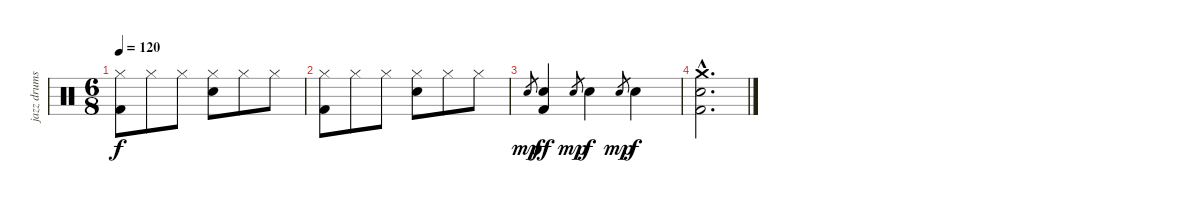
\track ("jazz drumset" "jazz drums") {instrument percussion}
\staff {score}
\articulation defaults
\ts (6 8)
\tempo 120
\clef neutral
\ks c
("Hi-Hat (closed)" "Kick (hit) 2").8{dy f} "Hi-Hat (closed)".8 "Hi-Hat (closed)".8 ("Hi-Hat (closed)" "Snare (hit) 2").8 "Hi-Hat (closed)".8 "Hi-Hat (closed)".8 |
("Hi-Hat (closed)" "Kick (hit) 2").8 "Hi-Hat (closed)".8 "Hi-Hat (closed)".8 ("Hi-Hat (closed)" "Snare (hit) 2").8 "Hi-Hat (closed)".8 "Hi-Hat (closed)".8 |
"Snare (hit) 2".8{gr dy mp} ("Snare (hit) 2" "Kick (hit) 2").4{dy ff} "Snare (hit) 2".8{gr dy mp} "Snare (hit) 2".4{dy f} "Snare (hit) 2".8{gr dy mp} "Snare (hit) 2".4{dy f} |
("Crash medium (hit)"{hac} "Snare (hit) 2"{hac} "Kick (hit) 2"{hac}).2{d}
